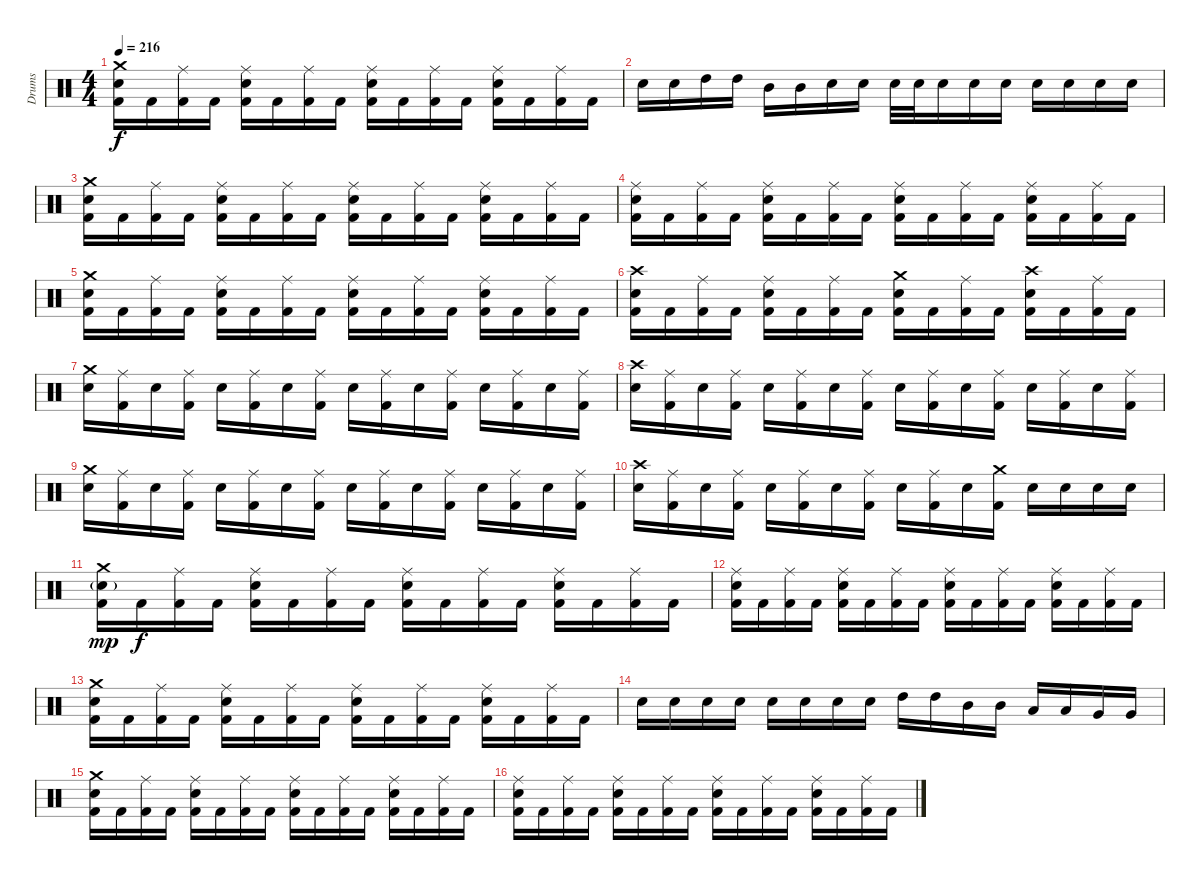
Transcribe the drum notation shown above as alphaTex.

\track ("Drums" "Drums") {instrument percussion}
\staff {score}
\articulation defaults
\ts (4 4)
\tempo 216
\clef neutral
\ks c
("Crash medium (hit)" "Electric Snare (hit)" "Kick (hit) 2").16{dy f} "Kick (hit) 2".16 ("Ride (middle)" "Kick (hit) 2").16 "Kick (hit) 2".16 ("Ride (middle)" "Electric Snare (hit)" "Kick (hit) 2").16 "Kick (hit) 2".16 ("Ride (middle)" "Kick (hit) 2").16 "Kick (hit) 2".16 ("Ride (middle)" "Electric Snare (hit)" "Kick (hit) 2").16 "Kick (hit) 2".16 ("Ride (middle)" "Kick (hit) 2").16 "Kick (hit) 2".16 ("Ride (middle)" "Electric Snare (hit)" "Kick (hit) 2").16 "Kick (hit) 2".16 ("Ride (middle)" "Kick (hit) 2").16 "Kick (hit) 2".16 |
"Electric Snare (hit)".16 "Electric Snare (hit)".16 "High Tom (hit)".16 "High Tom (hit)".16 "Mid Tom (hit)".16 "Mid Tom (hit)".16 "Electric Snare (hit)".16 "Electric Snare (hit)".16 "Electric Snare (hit)".32 "Electric Snare (hit)".32 "Electric Snare (hit)".16 "Electric Snare (hit)".16 "Electric Snare (hit)".16 "Electric Snare (hit)".16 "Electric Snare (hit)".16 "Electric Snare (hit)".16 "Electric Snare (hit)".16 |
("Crash medium (hit)" "Electric Snare (hit)" "Kick (hit) 2").16 "Kick (hit) 2".16 ("Ride (middle)" "Kick (hit) 2").16 "Kick (hit) 2".16 ("Ride (middle)" "Electric Snare (hit)" "Kick (hit) 2").16 "Kick (hit) 2".16 ("Ride (middle)" "Kick (hit) 2").16 "Kick (hit) 2".16 ("Ride (middle)" "Electric Snare (hit)" "Kick (hit) 2").16 "Kick (hit) 2".16 ("Ride (middle)" "Kick (hit) 2").16 "Kick (hit) 2".16 ("Ride (middle)" "Electric Snare (hit)" "Kick (hit) 2").16 "Kick (hit) 2".16 ("Ride (middle)" "Kick (hit) 2").16 "Kick (hit) 2".16 |
("Ride (middle)" "Electric Snare (hit)" "Kick (hit) 2").16 "Kick (hit) 2".16 ("Ride (middle)" "Kick (hit) 2").16 "Kick (hit) 2".16 ("Ride (middle)" "Electric Snare (hit)" "Kick (hit) 2").16 "Kick (hit) 2".16 ("Ride (middle)" "Kick (hit) 2").16 "Kick (hit) 2".16 ("Ride (middle)" "Electric Snare (hit)" "Kick (hit) 2").16 "Kick (hit) 2".16 ("Ride (middle)" "Kick (hit) 2").16 "Kick (hit) 2".16 ("Ride (middle)" "Electric Snare (hit)" "Kick (hit) 2").16 "Kick (hit) 2".16 ("Ride (middle)" "Kick (hit) 2").16 "Kick (hit) 2".16 |
("Crash medium (hit)" "Electric Snare (hit)" "Kick (hit) 2").16 "Kick (hit) 2".16 ("Ride (middle)" "Kick (hit) 2").16 "Kick (hit) 2".16 ("Ride (middle)" "Electric Snare (hit)" "Kick (hit) 2").16 "Kick (hit) 2".16 ("Ride (middle)" "Kick (hit) 2").16 "Kick (hit) 2".16 ("Ride (middle)" "Electric Snare (hit)" "Kick (hit) 2").16 "Kick (hit) 2".16 ("Ride (middle)" "Kick (hit) 2").16 "Kick (hit) 2".16 ("Ride (middle)" "Electric Snare (hit)" "Kick (hit) 2").16 "Kick (hit) 2".16 ("Ride (middle)" "Kick (hit) 2").16 "Kick (hit) 2".16 |
("Crash high (hit)" "Electric Snare (hit)" "Kick (hit) 2").16 "Kick (hit) 2".16 ("Ride (middle)" "Kick (hit) 2").16 "Kick (hit) 2".16 ("Ride (middle)" "Electric Snare (hit)" "Kick (hit) 2").16 "Kick (hit) 2".16 ("Ride (middle)" "Kick (hit) 2").16 "Kick (hit) 2".16 ("Crash medium (hit)" "Electric Snare (hit)" "Kick (hit) 2").16 "Kick (hit) 2".16 ("Ride (middle)" "Kick (hit) 2").16 "Kick (hit) 2".16 ("Crash high (hit)" "Electric Snare (hit)" "Kick (hit) 2").16 "Kick (hit) 2".16 ("Ride (middle)" "Kick (hit) 2").16 "Kick (hit) 2".16 |
("Crash medium (hit)" "Electric Snare (hit)").16 ("Ride (middle)" "Kick (hit) 2").16 "Electric Snare (hit)".16 ("Ride (middle)" "Kick (hit) 2").16 "Electric Snare (hit)".16 ("Ride (middle)" "Kick (hit) 2").16 "Electric Snare (hit)".16 ("Ride (middle)" "Kick (hit) 2").16 "Electric Snare (hit)".16 ("Ride (middle)" "Kick (hit) 2").16 "Electric Snare (hit)".16 ("Ride (middle)" "Kick (hit) 2").16 "Electric Snare (hit)".16 ("Ride (middle)" "Kick (hit) 2").16 "Electric Snare (hit)".16 ("Ride (middle)" "Kick (hit) 2").16 |
("Crash high (hit)" "Electric Snare (hit)").16 ("Ride (middle)" "Kick (hit) 2").16 "Electric Snare (hit)".16 ("Ride (middle)" "Kick (hit) 2").16 "Electric Snare (hit)".16 ("Ride (middle)" "Kick (hit) 2").16 "Electric Snare (hit)".16 ("Ride (middle)" "Kick (hit) 2").16 "Electric Snare (hit)".16 ("Ride (middle)" "Kick (hit) 2").16 "Electric Snare (hit)".16 ("Ride (middle)" "Kick (hit) 2").16 "Electric Snare (hit)".16 ("Ride (middle)" "Kick (hit) 2").16 "Electric Snare (hit)".16 ("Ride (middle)" "Kick (hit) 2").16 |
("Crash medium (hit)" "Electric Snare (hit)").16 ("Ride (middle)" "Kick (hit) 2").16 "Electric Snare (hit)".16 ("Ride (middle)" "Kick (hit) 2").16 "Electric Snare (hit)".16 ("Ride (middle)" "Kick (hit) 2").16 "Electric Snare (hit)".16 ("Ride (middle)" "Kick (hit) 2").16 "Electric Snare (hit)".16 ("Ride (middle)" "Kick (hit) 2").16 "Electric Snare (hit)".16 ("Ride (middle)" "Kick (hit) 2").16 "Electric Snare (hit)".16 ("Ride (middle)" "Kick (hit) 2").16 "Electric Snare (hit)".16 ("Ride (middle)" "Kick (hit) 2").16 |
("Crash high (hit)" "Electric Snare (hit)").16 ("Ride (middle)" "Kick (hit) 2").16 "Electric Snare (hit)".16 ("Ride (middle)" "Kick (hit) 2").16 "Electric Snare (hit)".16 ("Ride (middle)" "Kick (hit) 2").16 "Electric Snare (hit)".16 ("Ride (middle)" "Kick (hit) 2").16 "Electric Snare (hit)".16 ("Ride (middle)" "Kick (hit) 2").16 "Electric Snare (hit)".16 ("Crash medium (hit)" "Kick (hit) 2").16 "Electric Snare (hit)".16 "Electric Snare (hit)".16 "Electric Snare (hit)".16 "Electric Snare (hit)".16 |
("Crash medium (hit)" "Electric Snare (hit)"{g} "Kick (hit) 2").16{dy mp} "Kick (hit) 2".16{dy f} ("Ride (middle)" "Kick (hit) 2").16 "Kick (hit) 2".16 ("Ride (middle)" "Electric Snare (hit)" "Kick (hit) 2").16 "Kick (hit) 2".16 ("Ride (middle)" "Kick (hit) 2").16 "Kick (hit) 2".16 ("Ride (middle)" "Electric Snare (hit)" "Kick (hit) 2").16 "Kick (hit) 2".16 ("Ride (middle)" "Kick (hit) 2").16 "Kick (hit) 2".16 ("Ride (middle)" "Electric Snare (hit)" "Kick (hit) 2").16 "Kick (hit) 2".16 ("Ride (middle)" "Kick (hit) 2").16 "Kick (hit) 2".16 |
("Ride (middle)" "Electric Snare (hit)" "Kick (hit) 2").16 "Kick (hit) 2".16 ("Ride (middle)" "Kick (hit) 2").16 "Kick (hit) 2".16 ("Ride (middle)" "Electric Snare (hit)" "Kick (hit) 2").16 "Kick (hit) 2".16 ("Ride (middle)" "Kick (hit) 2").16 "Kick (hit) 2".16 ("Ride (middle)" "Electric Snare (hit)" "Kick (hit) 2").16 "Kick (hit) 2".16 ("Ride (middle)" "Kick (hit) 2").16 "Kick (hit) 2".16 ("Ride (middle)" "Electric Snare (hit)" "Kick (hit) 2").16 "Kick (hit) 2".16 ("Ride (middle)" "Kick (hit) 2").16 "Kick (hit) 2".16 |
("Crash medium (hit)" "Electric Snare (hit)" "Kick (hit) 2").16 "Kick (hit) 2".16 ("Ride (middle)" "Kick (hit) 2").16 "Kick (hit) 2".16 ("Ride (middle)" "Electric Snare (hit)" "Kick (hit) 2").16 "Kick (hit) 2".16 ("Ride (middle)" "Kick (hit) 2").16 "Kick (hit) 2".16 ("Ride (middle)" "Electric Snare (hit)" "Kick (hit) 2").16 "Kick (hit) 2".16 ("Ride (middle)" "Kick (hit) 2").16 "Kick (hit) 2".16 ("Ride (middle)" "Electric Snare (hit)" "Kick (hit) 2").16 "Kick (hit) 2".16 ("Ride (middle)" "Kick (hit) 2").16 "Kick (hit) 2".16 |
"Electric Snare (hit)".16 "Electric Snare (hit)".16 "Electric Snare (hit)".16 "Electric Snare (hit)".16 "Electric Snare (hit)".16 "Electric Snare (hit)".16 "Electric Snare (hit)".16 "Electric Snare (hit)".16 "High Tom (hit)".16 "High Tom (hit)".16 "Mid Tom (hit)".16 "Mid Tom (hit)".16 "Low Tom (hit)".16 "Low Tom (hit)".16 "Very Low Tom (hit)".16 "Very Low Tom (hit)".16 |
("Crash medium (hit)" "Electric Snare (hit)" "Kick (hit) 2").16 "Kick (hit) 2".16 ("Ride (middle)" "Kick (hit) 2").16 "Kick (hit) 2".16 ("Ride (middle)" "Electric Snare (hit)" "Kick (hit) 2").16 "Kick (hit) 2".16 ("Ride (middle)" "Kick (hit) 2").16 "Kick (hit) 2".16 ("Ride (middle)" "Electric Snare (hit)" "Kick (hit) 2").16 "Kick (hit) 2".16 ("Ride (middle)" "Kick (hit) 2").16 "Kick (hit) 2".16 ("Ride (middle)" "Electric Snare (hit)" "Kick (hit) 2").16 "Kick (hit) 2".16 ("Ride (middle)" "Kick (hit) 2").16 "Kick (hit) 2".16 |
("Ride (middle)" "Electric Snare (hit)" "Kick (hit) 2").16 "Kick (hit) 2".16 ("Ride (middle)" "Kick (hit) 2").16 "Kick (hit) 2".16 ("Ride (middle)" "Electric Snare (hit)" "Kick (hit) 2").16 "Kick (hit) 2".16 ("Ride (middle)" "Kick (hit) 2").16 "Kick (hit) 2".16 ("Ride (middle)" "Electric Snare (hit)" "Kick (hit) 2").16 "Kick (hit) 2".16 ("Ride (middle)" "Kick (hit) 2").16 "Kick (hit) 2".16 ("Ride (middle)" "Electric Snare (hit)" "Kick (hit) 2").16 "Kick (hit) 2".16 ("Ride (middle)" "Kick (hit) 2").16 "Kick (hit) 2".16
